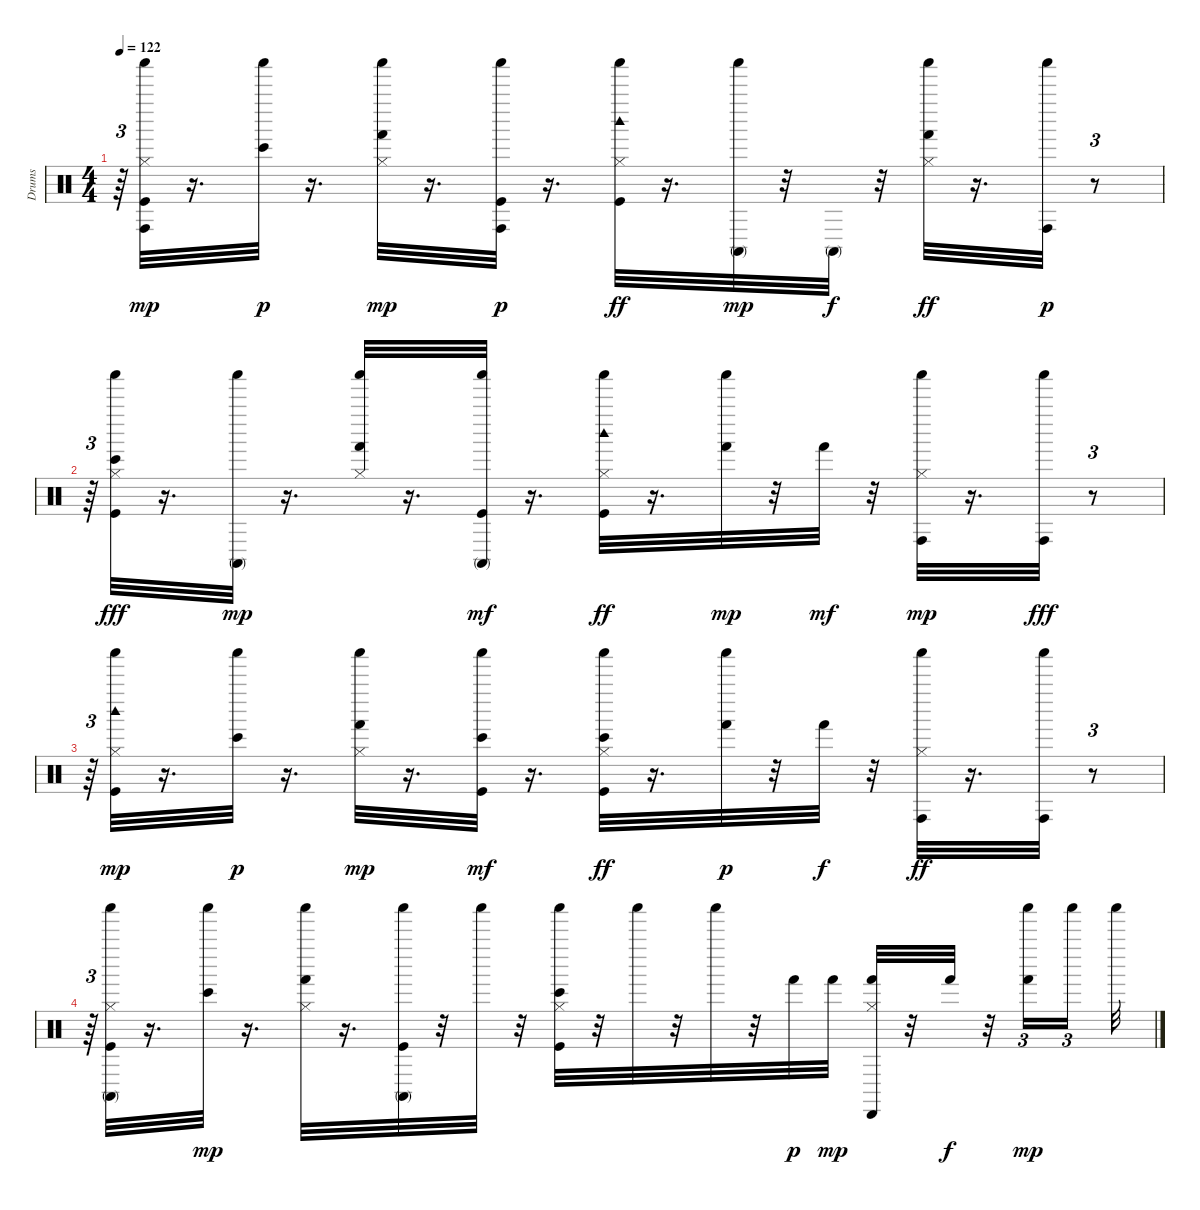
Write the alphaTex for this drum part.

\track ("Drums" "Drums") {instrument percussion}
\staff {score}
\articulation defaults
\ts (4 4)
\tempo 122
\clef neutral
\ks c
r.64{tu (3 2) dy mf} ("Hi-Hat (closed)" "Kick (hit)" "Conga high (hit)" "Shaker (hit)").32{dy mp} r.16{d} ("Bongo High (hit)" "Shaker (hit)").32{dy p} r.16{d} ("Hi-Hat (closed)" "Hand (hit)" "Shaker (hit)").32{dy mp} r.16{d} ("Conga high (hit)" "Shaker (hit)" "Kick (hit)").32{dy p} r.16{d} ("Hi-Hat (closed)" "Woodblock high (hit)" "Shaker (hit)" "Kick (hit)").32{dy ff} r.16{d} ("Conga high (mute)" "Shaker (hit)").32{dy mp} r.32 "Conga high (mute)".32{dy f} r.32 ("Hi-Hat (closed)" "Shaker (hit)" "Hand (hit)").32{dy ff} r.16{d} ("Conga high (hit)" "Shaker (hit)").32{dy p} r.8{tu (3 2)} |
r.64{tu (3 2)} ("Hi-Hat (closed)" "Shaker (hit)" "Kick (hit)" "Bongo High (hit)").32{dy fff} r.16{d} ("Conga high (mute)" "Shaker (hit)").32{dy mp} r.16{d} ("Hi-Hat (closed)" "Shaker (hit)" "Hand (hit)").32 r.16{d} ("Shaker (hit)" "Kick (hit)" "Conga high (mute)").32{dy mf} r.16{d} ("Hi-Hat (closed)" "Shaker (hit)" "Kick (hit)" "Woodblock high (hit)").32{dy ff} r.16{d} ("Hand (hit)" "Shaker (hit)").32{dy mp} r.32 "Hand (hit)".32{dy mf} r.32 ("Hi-Hat (closed)" "Conga high (hit)" "Shaker (hit)").32{dy mp} r.16{d} ("Shaker (hit)" "Conga high (hit)").32{dy fff} r.8{tu (3 2)} |
r.64{tu (3 2)} ("Woodblock high (hit)" "Kick (hit)" "Hi-Hat (closed)" "Shaker (hit)").32{dy mp} r.16{d} ("Bongo High (hit)" "Shaker (hit)").32{dy p} r.16{d} ("Hi-Hat (closed)" "Shaker (hit)" "Hand (hit)").32{dy mp} r.16{d} ("Shaker (hit)" "Kick (hit)" "Bongo High (hit)").32{dy mf} r.16{d} ("Hi-Hat (closed)" "Shaker (hit)" "Kick (hit)" "Bongo High (hit)").32{dy ff} r.16{d} ("Shaker (hit)" "Hand (hit)").32{dy p} r.32 "Hand (hit)".32{dy f} r.32 ("Hi-Hat (closed)" "Shaker (hit)" "Conga high (hit)").32{dy ff} r.16{d} ("Shaker (hit)" "Conga high (hit)").32 r.8{tu (3 2)} |
r.64{tu (3 2)} ("Hi-Hat (closed)" "Shaker (hit)" "Kick (hit)" "Conga high (mute)").32 r.16{d} ("Shaker (hit)" "Bongo High (hit)").32{dy mp} r.16{d} ("Hi-Hat (closed)" "Hand (hit)" "Shaker (hit)").32 r.16{d} ("Shaker (hit)" "Kick (hit)" "Conga high (mute)").32 r.32 "Shaker (hit)".32 r.32 ("Bongo High (hit)" "Shaker (hit)" "Kick (hit)" "Hi-Hat (closed)").32 r.32 "Shaker (hit)".32 r.32 "Shaker (hit)".32 r.32 "Hand (hit)".32{dy p} "Hand (hit)".32{dy mp} ("Hi-Hat (closed)" "Hand (hit)" "Cabasa (hit)").32 r.32 "Hand (hit)".32{dy f} r.32 ("Hand (hit)" "Shaker (hit)").16{tu (3 2) dy mp} "Shaker (hit)".16{tu (3 2) beam splitsecondary} "Shaker (hit)".32
